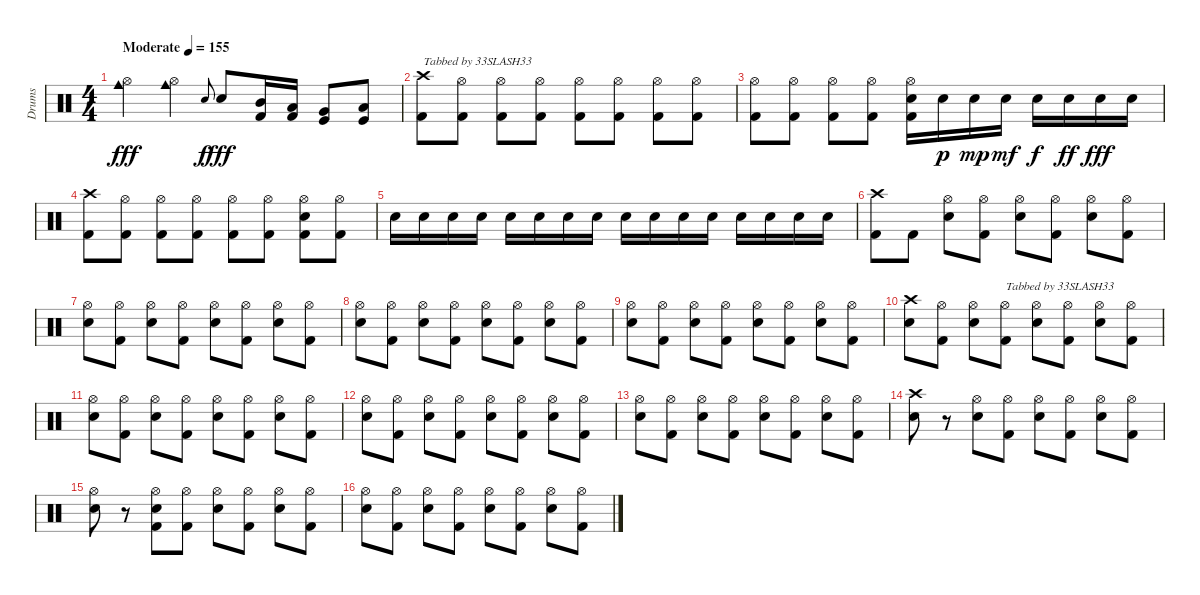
\track ("Drums" "Drums") {instrument percussion}
\staff {score}
\articulation defaults
\ts (4 4)
\tempo (155 "Moderate")
\clef neutral
\ks c
("Hi-Hat (open)" "Cowbell medium (hit)").4{dy fff} ("Hi-Hat (open)" "Cowbell medium (hit)").4 "Snare (hit) 2".8{gr onbeat dy f} "Snare (hit) 2".8{dy fff} ("Mid Tom (hit)" "Kick (hit) 2").16 ("Low Tom (hit)" "Kick (hit) 2").16 ("Very Low Tom (hit)" "Kick (hit)").8 ("Low Floor Tom (hit)" "Kick (hit)").8 |
("Crash high (hit)" "Kick (hit) 2").8{txt "Tabbed by 33SLASH33"} ("Hi-Hat (open)" "Kick (hit) 2").8 ("Hi-Hat (open)" "Kick (hit) 2").8 ("Hi-Hat (open)" "Kick (hit) 2").8 ("Hi-Hat (open)" "Kick (hit) 2").8 ("Hi-Hat (open)" "Kick (hit) 2").8 ("Hi-Hat (open)" "Kick (hit) 2").8 ("Hi-Hat (open)" "Kick (hit) 2").8 |
("Hi-Hat (open)" "Kick (hit) 2").8 ("Hi-Hat (open)" "Kick (hit) 2").8 ("Hi-Hat (open)" "Kick (hit) 2").8 ("Hi-Hat (open)" "Kick (hit) 2").8 ("Hi-Hat (open)" "Snare (hit) 2" "Kick (hit) 2").16 "Snare (hit) 2".16{dy p} "Snare (hit) 2".16{dy mp} "Snare (hit) 2".16{dy mf} "Snare (hit) 2".16{dy f} "Snare (hit) 2".16{dy ff} "Snare (hit) 2".16{dy fff} "Snare (hit) 2".16 |
("Crash high (hit)" "Kick (hit) 2").8 ("Hi-Hat (open)" "Kick (hit) 2").8 ("Hi-Hat (open)" "Kick (hit) 2").8 ("Hi-Hat (open)" "Kick (hit) 2").8 ("Hi-Hat (open)" "Kick (hit) 2").8 ("Hi-Hat (open)" "Kick (hit) 2").8 ("Hi-Hat (open)" "Snare (hit) 2" "Kick (hit) 2").8 ("Hi-Hat (open)" "Kick (hit) 2").8 |
"Snare (hit) 2".16 "Snare (hit) 2".16 "Snare (hit) 2".16 "Snare (hit) 2".16 "Snare (hit) 2".16 "Snare (hit) 2".16 "Snare (hit) 2".16 "Snare (hit) 2".16 "Snare (hit) 2".16 "Snare (hit) 2".16 "Snare (hit) 2".16 "Snare (hit) 2".16 "Snare (hit) 2".16 "Snare (hit) 2".16 "Snare (hit) 2".16 "Snare (hit) 2".16 |
("Crash high (hit)" "Kick (hit) 2").8 "Kick (hit) 2".8 ("Hi-Hat (open)" "Snare (hit) 2").8 ("Hi-Hat (open)" "Kick (hit) 2").8 ("Hi-Hat (open)" "Snare (hit) 2").8 ("Hi-Hat (open)" "Kick (hit) 2").8 ("Hi-Hat (open)" "Snare (hit) 2").8 ("Hi-Hat (open)" "Kick (hit) 2").8 |
("Hi-Hat (open)" "Snare (hit) 2").8 ("Hi-Hat (open)" "Kick (hit) 2").8 ("Hi-Hat (open)" "Snare (hit) 2").8 ("Hi-Hat (open)" "Kick (hit) 2").8 ("Hi-Hat (open)" "Snare (hit) 2").8 ("Hi-Hat (open)" "Kick (hit) 2").8 ("Hi-Hat (open)" "Snare (hit) 2").8 ("Hi-Hat (open)" "Kick (hit) 2").8 |
("Hi-Hat (open)" "Snare (hit) 2").8 ("Hi-Hat (open)" "Kick (hit) 2").8 ("Hi-Hat (open)" "Snare (hit) 2").8 ("Hi-Hat (open)" "Kick (hit) 2").8 ("Hi-Hat (open)" "Snare (hit) 2").8 ("Hi-Hat (open)" "Kick (hit) 2").8 ("Hi-Hat (open)" "Snare (hit) 2").8 ("Hi-Hat (open)" "Kick (hit) 2").8 |
("Hi-Hat (open)" "Snare (hit) 2").8 ("Hi-Hat (open)" "Kick (hit) 2").8 ("Hi-Hat (open)" "Snare (hit) 2").8 ("Hi-Hat (open)" "Kick (hit) 2").8 ("Hi-Hat (open)" "Snare (hit) 2").8 ("Hi-Hat (open)" "Kick (hit) 2").8 ("Hi-Hat (open)" "Snare (hit) 2").8 ("Hi-Hat (open)" "Kick (hit) 2").8 |
("Crash high (hit)" "Snare (hit) 2").8 ("Hi-Hat (open)" "Kick (hit) 2").8 ("Hi-Hat (open)" "Snare (hit) 2").8 ("Hi-Hat (open)" "Kick (hit) 2").8{txt "Tabbed by 33SLASH33"} ("Hi-Hat (open)" "Snare (hit) 2").8 ("Hi-Hat (open)" "Kick (hit) 2").8 ("Hi-Hat (open)" "Snare (hit) 2").8 ("Hi-Hat (open)" "Kick (hit) 2").8 |
("Hi-Hat (open)" "Snare (hit) 2").8 ("Hi-Hat (open)" "Kick (hit) 2").8 ("Hi-Hat (open)" "Snare (hit) 2").8 ("Hi-Hat (open)" "Kick (hit) 2").8 ("Hi-Hat (open)" "Snare (hit) 2").8 ("Hi-Hat (open)" "Kick (hit) 2").8 ("Hi-Hat (open)" "Snare (hit) 2").8 ("Hi-Hat (open)" "Kick (hit) 2").8 |
("Hi-Hat (open)" "Snare (hit) 2").8 ("Hi-Hat (open)" "Kick (hit) 2").8 ("Hi-Hat (open)" "Snare (hit) 2").8 ("Hi-Hat (open)" "Kick (hit) 2").8 ("Hi-Hat (open)" "Snare (hit) 2").8 ("Hi-Hat (open)" "Kick (hit) 2").8 ("Hi-Hat (open)" "Snare (hit) 2").8 ("Hi-Hat (open)" "Kick (hit) 2").8 |
("Hi-Hat (open)" "Snare (hit) 2").8 ("Hi-Hat (open)" "Kick (hit) 2").8 ("Hi-Hat (open)" "Snare (hit) 2").8 ("Hi-Hat (open)" "Kick (hit) 2").8 ("Hi-Hat (open)" "Snare (hit) 2").8 ("Hi-Hat (open)" "Kick (hit) 2").8 ("Hi-Hat (open)" "Snare (hit) 2").8 ("Hi-Hat (open)" "Kick (hit) 2").8 |
("Crash high (hit)" "Snare (hit) 2").8 r.8 ("Hi-Hat (open)" "Snare (hit) 2").8 ("Hi-Hat (open)" "Kick (hit) 2").8 ("Hi-Hat (open)" "Snare (hit) 2").8 ("Hi-Hat (open)" "Kick (hit) 2").8 ("Hi-Hat (open)" "Snare (hit) 2").8 ("Hi-Hat (open)" "Kick (hit) 2").8 |
("Hi-Hat (open)" "Snare (hit) 2").8 r.8 ("Hi-Hat (open)" "Snare (hit) 2" "Kick (hit) 2").8 ("Hi-Hat (open)" "Kick (hit) 2").8 ("Hi-Hat (open)" "Snare (hit) 2").8 ("Hi-Hat (open)" "Kick (hit) 2").8 ("Hi-Hat (open)" "Snare (hit) 2").8 ("Hi-Hat (open)" "Kick (hit) 2").8 |
("Hi-Hat (open)" "Snare (hit) 2").8 ("Hi-Hat (open)" "Kick (hit) 2").8 ("Hi-Hat (open)" "Snare (hit) 2").8 ("Hi-Hat (open)" "Kick (hit) 2").8 ("Hi-Hat (open)" "Snare (hit) 2").8 ("Hi-Hat (open)" "Kick (hit) 2").8 ("Hi-Hat (open)" "Snare (hit) 2").8 ("Hi-Hat (open)" "Kick (hit) 2").8
